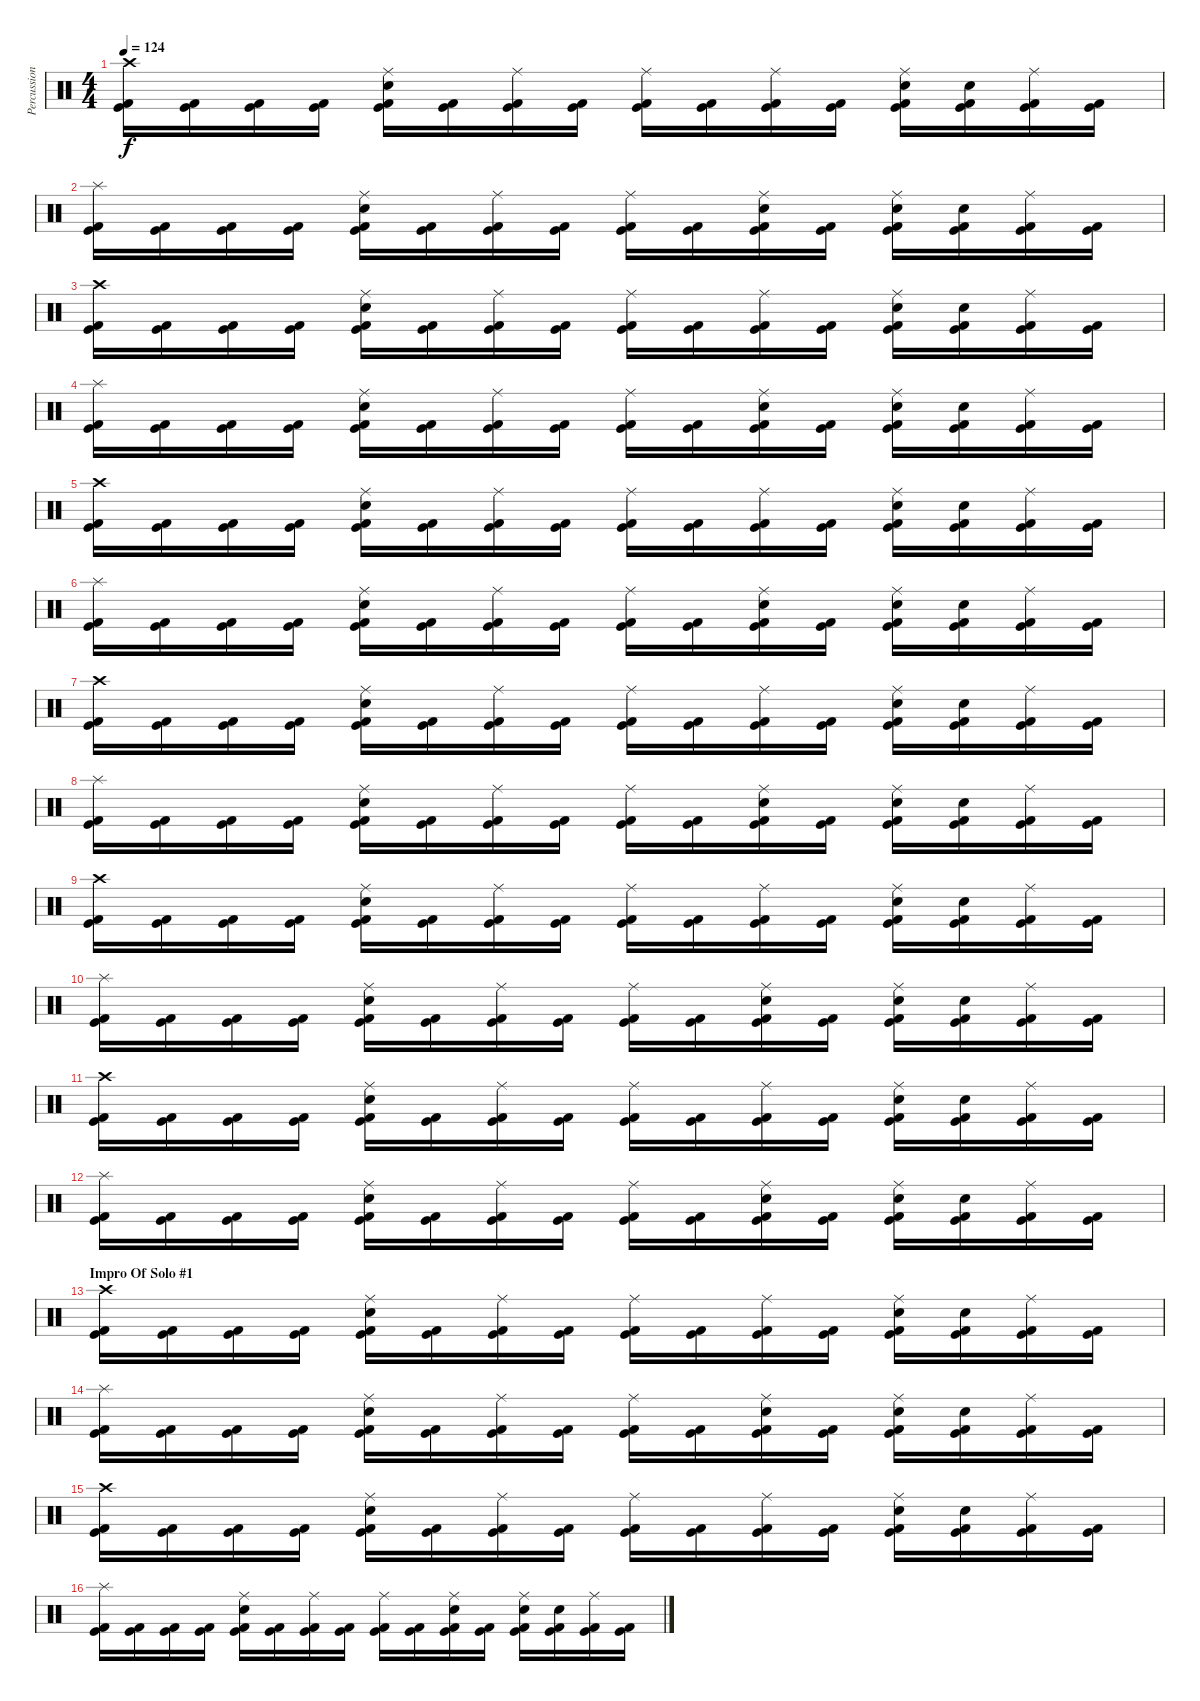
\track ("Percussion" "Percussion") {instrument percussion}
\staff {score}
\articulation defaults
\ts (4 4)
\tempo 124
\clef neutral
\ks c
("Crash high (hit)" "Kick (hit) 2" "Kick (hit)").16{dy f} ("Kick (hit) 2" "Kick (hit)").16 ("Kick (hit) 2" "Kick (hit)").16 ("Kick (hit) 2" "Kick (hit)").16 ("Ride (middle)" "Snare (hit) 2" "Kick (hit) 2" "Kick (hit)").16 ("Kick (hit) 2" "Kick (hit)").16 ("Ride (middle)" "Kick (hit) 2" "Kick (hit)").16 ("Kick (hit) 2" "Kick (hit)").16 ("Ride (middle)" "Kick (hit) 2" "Kick (hit)").16 ("Kick (hit) 2" "Kick (hit)").16 ("Ride (middle)" "Kick (hit) 2" "Kick (hit)").16 ("Kick (hit) 2" "Kick (hit)").16 ("Ride (middle)" "Snare (hit) 2" "Kick (hit) 2" "Kick (hit)").16 ("Snare (hit) 2" "Kick (hit) 2" "Kick (hit)").16 ("Ride (middle)" "Kick (hit) 2" "Kick (hit)").16 ("Kick (hit) 2" "Kick (hit)").16 |
("Splash (hit)" "Kick (hit) 2" "Kick (hit)").16 ("Kick (hit) 2" "Kick (hit)").16 ("Kick (hit) 2" "Kick (hit)").16 ("Kick (hit) 2" "Kick (hit)").16 ("Ride (middle)" "Snare (hit) 2" "Kick (hit) 2" "Kick (hit)").16 ("Kick (hit) 2" "Kick (hit)").16 ("Ride (middle)" "Kick (hit) 2" "Kick (hit)").16 ("Kick (hit) 2" "Kick (hit)").16 ("Ride (middle)" "Kick (hit) 2" "Kick (hit)").16 ("Kick (hit) 2" "Kick (hit)").16 ("Ride (middle)" "Snare (hit) 2" "Kick (hit) 2" "Kick (hit)").16 ("Kick (hit) 2" "Kick (hit)").16 ("Ride (middle)" "Snare (hit) 2" "Kick (hit) 2" "Kick (hit)").16 ("Snare (hit) 2" "Kick (hit) 2" "Kick (hit)").16 ("Ride (middle)" "Kick (hit) 2" "Kick (hit)").16 ("Kick (hit) 2" "Kick (hit)").16 |
("Crash high (hit)" "Kick (hit) 2" "Kick (hit)").16 ("Kick (hit) 2" "Kick (hit)").16 ("Kick (hit) 2" "Kick (hit)").16 ("Kick (hit) 2" "Kick (hit)").16 ("Ride (middle)" "Snare (hit) 2" "Kick (hit) 2" "Kick (hit)").16 ("Kick (hit) 2" "Kick (hit)").16 ("Ride (middle)" "Kick (hit) 2" "Kick (hit)").16 ("Kick (hit) 2" "Kick (hit)").16 ("Ride (middle)" "Kick (hit) 2" "Kick (hit)").16 ("Kick (hit) 2" "Kick (hit)").16 ("Ride (middle)" "Kick (hit) 2" "Kick (hit)").16 ("Kick (hit) 2" "Kick (hit)").16 ("Ride (middle)" "Snare (hit) 2" "Kick (hit) 2" "Kick (hit)").16 ("Snare (hit) 2" "Kick (hit) 2" "Kick (hit)").16 ("Ride (middle)" "Kick (hit) 2" "Kick (hit)").16 ("Kick (hit) 2" "Kick (hit)").16 |
("Splash (hit)" "Kick (hit) 2" "Kick (hit)").16 ("Kick (hit) 2" "Kick (hit)").16 ("Kick (hit) 2" "Kick (hit)").16 ("Kick (hit) 2" "Kick (hit)").16 ("Ride (middle)" "Snare (hit) 2" "Kick (hit) 2" "Kick (hit)").16 ("Kick (hit) 2" "Kick (hit)").16 ("Ride (middle)" "Kick (hit) 2" "Kick (hit)").16 ("Kick (hit) 2" "Kick (hit)").16 ("Ride (middle)" "Kick (hit) 2" "Kick (hit)").16 ("Kick (hit) 2" "Kick (hit)").16 ("Ride (middle)" "Snare (hit) 2" "Kick (hit) 2" "Kick (hit)").16 ("Kick (hit) 2" "Kick (hit)").16 ("Ride (middle)" "Snare (hit) 2" "Kick (hit) 2" "Kick (hit)").16 ("Snare (hit) 2" "Kick (hit) 2" "Kick (hit)").16 ("Ride (middle)" "Kick (hit) 2" "Kick (hit)").16 ("Kick (hit) 2" "Kick (hit)").16 |
("Crash high (hit)" "Kick (hit) 2" "Kick (hit)").16 ("Kick (hit) 2" "Kick (hit)").16 ("Kick (hit) 2" "Kick (hit)").16 ("Kick (hit) 2" "Kick (hit)").16 ("Ride (middle)" "Snare (hit) 2" "Kick (hit) 2" "Kick (hit)").16 ("Kick (hit) 2" "Kick (hit)").16 ("Ride (middle)" "Kick (hit) 2" "Kick (hit)").16 ("Kick (hit) 2" "Kick (hit)").16 ("Ride (middle)" "Kick (hit) 2" "Kick (hit)").16 ("Kick (hit) 2" "Kick (hit)").16 ("Ride (middle)" "Kick (hit) 2" "Kick (hit)").16 ("Kick (hit) 2" "Kick (hit)").16 ("Ride (middle)" "Snare (hit) 2" "Kick (hit) 2" "Kick (hit)").16 ("Snare (hit) 2" "Kick (hit) 2" "Kick (hit)").16 ("Ride (middle)" "Kick (hit) 2" "Kick (hit)").16 ("Kick (hit) 2" "Kick (hit)").16 |
("Splash (hit)" "Kick (hit) 2" "Kick (hit)").16 ("Kick (hit) 2" "Kick (hit)").16 ("Kick (hit) 2" "Kick (hit)").16 ("Kick (hit) 2" "Kick (hit)").16 ("Ride (middle)" "Snare (hit) 2" "Kick (hit) 2" "Kick (hit)").16 ("Kick (hit) 2" "Kick (hit)").16 ("Ride (middle)" "Kick (hit) 2" "Kick (hit)").16 ("Kick (hit) 2" "Kick (hit)").16 ("Ride (middle)" "Kick (hit) 2" "Kick (hit)").16 ("Kick (hit) 2" "Kick (hit)").16 ("Ride (middle)" "Snare (hit) 2" "Kick (hit) 2" "Kick (hit)").16 ("Kick (hit) 2" "Kick (hit)").16 ("Ride (middle)" "Snare (hit) 2" "Kick (hit) 2" "Kick (hit)").16 ("Snare (hit) 2" "Kick (hit) 2" "Kick (hit)").16 ("Ride (middle)" "Kick (hit) 2" "Kick (hit)").16 ("Kick (hit) 2" "Kick (hit)").16 |
("Crash high (hit)" "Kick (hit) 2" "Kick (hit)").16 ("Kick (hit) 2" "Kick (hit)").16 ("Kick (hit) 2" "Kick (hit)").16 ("Kick (hit) 2" "Kick (hit)").16 ("Ride (middle)" "Snare (hit) 2" "Kick (hit) 2" "Kick (hit)").16 ("Kick (hit) 2" "Kick (hit)").16 ("Ride (middle)" "Kick (hit) 2" "Kick (hit)").16 ("Kick (hit) 2" "Kick (hit)").16 ("Ride (middle)" "Kick (hit) 2" "Kick (hit)").16 ("Kick (hit) 2" "Kick (hit)").16 ("Ride (middle)" "Kick (hit) 2" "Kick (hit)").16 ("Kick (hit) 2" "Kick (hit)").16 ("Ride (middle)" "Snare (hit) 2" "Kick (hit) 2" "Kick (hit)").16 ("Snare (hit) 2" "Kick (hit) 2" "Kick (hit)").16 ("Ride (middle)" "Kick (hit) 2" "Kick (hit)").16 ("Kick (hit) 2" "Kick (hit)").16 |
("Splash (hit)" "Kick (hit) 2" "Kick (hit)").16 ("Kick (hit) 2" "Kick (hit)").16 ("Kick (hit) 2" "Kick (hit)").16 ("Kick (hit) 2" "Kick (hit)").16 ("Ride (middle)" "Snare (hit) 2" "Kick (hit) 2" "Kick (hit)").16 ("Kick (hit) 2" "Kick (hit)").16 ("Ride (middle)" "Kick (hit) 2" "Kick (hit)").16 ("Kick (hit) 2" "Kick (hit)").16 ("Ride (middle)" "Kick (hit) 2" "Kick (hit)").16 ("Kick (hit) 2" "Kick (hit)").16 ("Ride (middle)" "Snare (hit) 2" "Kick (hit) 2" "Kick (hit)").16 ("Kick (hit) 2" "Kick (hit)").16 ("Ride (middle)" "Snare (hit) 2" "Kick (hit) 2" "Kick (hit)").16 ("Snare (hit) 2" "Kick (hit) 2" "Kick (hit)").16 ("Ride (middle)" "Kick (hit) 2" "Kick (hit)").16 ("Kick (hit) 2" "Kick (hit)").16 |
("Crash high (hit)" "Kick (hit) 2" "Kick (hit)").16 ("Kick (hit) 2" "Kick (hit)").16 ("Kick (hit) 2" "Kick (hit)").16 ("Kick (hit) 2" "Kick (hit)").16 ("Ride (middle)" "Snare (hit) 2" "Kick (hit) 2" "Kick (hit)").16 ("Kick (hit) 2" "Kick (hit)").16 ("Ride (middle)" "Kick (hit) 2" "Kick (hit)").16 ("Kick (hit) 2" "Kick (hit)").16 ("Ride (middle)" "Kick (hit) 2" "Kick (hit)").16 ("Kick (hit) 2" "Kick (hit)").16 ("Ride (middle)" "Kick (hit) 2" "Kick (hit)").16 ("Kick (hit) 2" "Kick (hit)").16 ("Ride (middle)" "Snare (hit) 2" "Kick (hit) 2" "Kick (hit)").16 ("Snare (hit) 2" "Kick (hit) 2" "Kick (hit)").16 ("Ride (middle)" "Kick (hit) 2" "Kick (hit)").16 ("Kick (hit) 2" "Kick (hit)").16 |
("Splash (hit)" "Kick (hit) 2" "Kick (hit)").16 ("Kick (hit) 2" "Kick (hit)").16 ("Kick (hit) 2" "Kick (hit)").16 ("Kick (hit) 2" "Kick (hit)").16 ("Ride (middle)" "Snare (hit) 2" "Kick (hit) 2" "Kick (hit)").16 ("Kick (hit) 2" "Kick (hit)").16 ("Ride (middle)" "Kick (hit) 2" "Kick (hit)").16 ("Kick (hit) 2" "Kick (hit)").16 ("Ride (middle)" "Kick (hit) 2" "Kick (hit)").16 ("Kick (hit) 2" "Kick (hit)").16 ("Ride (middle)" "Snare (hit) 2" "Kick (hit) 2" "Kick (hit)").16 ("Kick (hit) 2" "Kick (hit)").16 ("Ride (middle)" "Snare (hit) 2" "Kick (hit) 2" "Kick (hit)").16 ("Snare (hit) 2" "Kick (hit) 2" "Kick (hit)").16 ("Ride (middle)" "Kick (hit) 2" "Kick (hit)").16 ("Kick (hit) 2" "Kick (hit)").16 |
("Crash high (hit)" "Kick (hit) 2" "Kick (hit)").16 ("Kick (hit) 2" "Kick (hit)").16 ("Kick (hit) 2" "Kick (hit)").16 ("Kick (hit) 2" "Kick (hit)").16 ("Ride (middle)" "Snare (hit) 2" "Kick (hit) 2" "Kick (hit)").16 ("Kick (hit) 2" "Kick (hit)").16 ("Ride (middle)" "Kick (hit) 2" "Kick (hit)").16 ("Kick (hit) 2" "Kick (hit)").16 ("Ride (middle)" "Kick (hit) 2" "Kick (hit)").16 ("Kick (hit) 2" "Kick (hit)").16 ("Ride (middle)" "Kick (hit) 2" "Kick (hit)").16 ("Kick (hit) 2" "Kick (hit)").16 ("Ride (middle)" "Snare (hit) 2" "Kick (hit) 2" "Kick (hit)").16 ("Snare (hit) 2" "Kick (hit) 2" "Kick (hit)").16 ("Ride (middle)" "Kick (hit) 2" "Kick (hit)").16 ("Kick (hit) 2" "Kick (hit)").16 |
("Splash (hit)" "Kick (hit) 2" "Kick (hit)").16 ("Kick (hit) 2" "Kick (hit)").16 ("Kick (hit) 2" "Kick (hit)").16 ("Kick (hit) 2" "Kick (hit)").16 ("Ride (middle)" "Snare (hit) 2" "Kick (hit) 2" "Kick (hit)").16 ("Kick (hit) 2" "Kick (hit)").16 ("Ride (middle)" "Kick (hit) 2" "Kick (hit)").16 ("Kick (hit) 2" "Kick (hit)").16 ("Ride (middle)" "Kick (hit) 2" "Kick (hit)").16 ("Kick (hit) 2" "Kick (hit)").16 ("Ride (middle)" "Snare (hit) 2" "Kick (hit) 2" "Kick (hit)").16 ("Kick (hit) 2" "Kick (hit)").16 ("Ride (middle)" "Snare (hit) 2" "Kick (hit) 2" "Kick (hit)").16 ("Snare (hit) 2" "Kick (hit) 2" "Kick (hit)").16 ("Ride (middle)" "Kick (hit) 2" "Kick (hit)").16 ("Kick (hit) 2" "Kick (hit)").16 |
\section ("" "Impro Of Solo #1")
("Crash high (hit)" "Kick (hit) 2" "Kick (hit)").16 ("Kick (hit) 2" "Kick (hit)").16 ("Kick (hit) 2" "Kick (hit)").16 ("Kick (hit) 2" "Kick (hit)").16 ("Ride (middle)" "Snare (hit) 2" "Kick (hit) 2" "Kick (hit)").16 ("Kick (hit) 2" "Kick (hit)").16 ("Ride (middle)" "Kick (hit) 2" "Kick (hit)").16 ("Kick (hit) 2" "Kick (hit)").16 ("Ride (middle)" "Kick (hit) 2" "Kick (hit)").16 ("Kick (hit) 2" "Kick (hit)").16 ("Ride (middle)" "Kick (hit) 2" "Kick (hit)").16 ("Kick (hit) 2" "Kick (hit)").16 ("Ride (middle)" "Snare (hit) 2" "Kick (hit) 2" "Kick (hit)").16 ("Snare (hit) 2" "Kick (hit) 2" "Kick (hit)").16 ("Ride (middle)" "Kick (hit) 2" "Kick (hit)").16 ("Kick (hit) 2" "Kick (hit)").16 |
("Splash (hit)" "Kick (hit) 2" "Kick (hit)").16 ("Kick (hit) 2" "Kick (hit)").16 ("Kick (hit) 2" "Kick (hit)").16 ("Kick (hit) 2" "Kick (hit)").16 ("Ride (middle)" "Snare (hit) 2" "Kick (hit) 2" "Kick (hit)").16 ("Kick (hit) 2" "Kick (hit)").16 ("Ride (middle)" "Kick (hit) 2" "Kick (hit)").16 ("Kick (hit) 2" "Kick (hit)").16 ("Ride (middle)" "Kick (hit) 2" "Kick (hit)").16 ("Kick (hit) 2" "Kick (hit)").16 ("Ride (middle)" "Snare (hit) 2" "Kick (hit) 2" "Kick (hit)").16 ("Kick (hit) 2" "Kick (hit)").16 ("Ride (middle)" "Snare (hit) 2" "Kick (hit) 2" "Kick (hit)").16 ("Snare (hit) 2" "Kick (hit) 2" "Kick (hit)").16 ("Ride (middle)" "Kick (hit) 2" "Kick (hit)").16 ("Kick (hit) 2" "Kick (hit)").16 |
("Crash high (hit)" "Kick (hit) 2" "Kick (hit)").16 ("Kick (hit) 2" "Kick (hit)").16 ("Kick (hit) 2" "Kick (hit)").16 ("Kick (hit) 2" "Kick (hit)").16 ("Ride (middle)" "Snare (hit) 2" "Kick (hit) 2" "Kick (hit)").16 ("Kick (hit) 2" "Kick (hit)").16 ("Ride (middle)" "Kick (hit) 2" "Kick (hit)").16 ("Kick (hit) 2" "Kick (hit)").16 ("Ride (middle)" "Kick (hit) 2" "Kick (hit)").16 ("Kick (hit) 2" "Kick (hit)").16 ("Ride (middle)" "Kick (hit) 2" "Kick (hit)").16 ("Kick (hit) 2" "Kick (hit)").16 ("Ride (middle)" "Snare (hit) 2" "Kick (hit) 2" "Kick (hit)").16 ("Snare (hit) 2" "Kick (hit) 2" "Kick (hit)").16 ("Ride (middle)" "Kick (hit) 2" "Kick (hit)").16 ("Kick (hit) 2" "Kick (hit)").16 |
("Splash (hit)" "Kick (hit) 2" "Kick (hit)").16 ("Kick (hit) 2" "Kick (hit)").16 ("Kick (hit) 2" "Kick (hit)").16 ("Kick (hit) 2" "Kick (hit)").16 ("Ride (middle)" "Snare (hit) 2" "Kick (hit) 2" "Kick (hit)").16 ("Kick (hit) 2" "Kick (hit)").16 ("Ride (middle)" "Kick (hit) 2" "Kick (hit)").16 ("Kick (hit) 2" "Kick (hit)").16 ("Ride (middle)" "Kick (hit) 2" "Kick (hit)").16 ("Kick (hit) 2" "Kick (hit)").16 ("Ride (middle)" "Snare (hit) 2" "Kick (hit) 2" "Kick (hit)").16 ("Kick (hit) 2" "Kick (hit)").16 ("Ride (middle)" "Snare (hit) 2" "Kick (hit) 2" "Kick (hit)").16 ("Snare (hit) 2" "Kick (hit) 2" "Kick (hit)").16 ("Ride (middle)" "Kick (hit) 2" "Kick (hit)").16 ("Kick (hit) 2" "Kick (hit)").16
